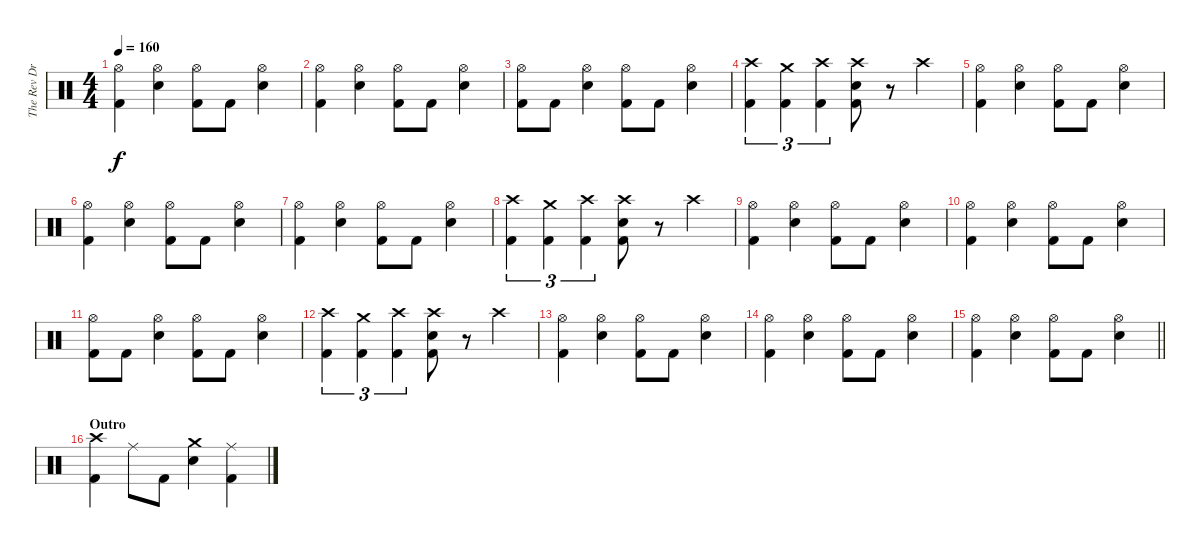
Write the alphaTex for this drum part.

\track ("The Rev Drum" "The Rev Dr") {instrument percussion}
\staff {score}
\articulation defaults
\ts (4 4)
\tempo 160
\clef neutral
\ks c
("Hi-Hat (open)" "Kick (hit) 2").4{dy f} ("Hi-Hat (open)" "Electric Snare (hit)").4 ("Hi-Hat (open)" "Kick (hit) 2").8 "Kick (hit) 2".8 ("Hi-Hat (open)" "Electric Snare (hit)").4 |
("Hi-Hat (open)" "Kick (hit) 2").4 ("Hi-Hat (open)" "Electric Snare (hit)").4 ("Hi-Hat (open)" "Kick (hit) 2").8 "Kick (hit) 2".8 ("Hi-Hat (open)" "Electric Snare (hit)").4 |
("Hi-Hat (open)" "Kick (hit) 2").8 "Kick (hit) 2".8 ("Hi-Hat (open)" "Electric Snare (hit)").4 ("Hi-Hat (open)" "Kick (hit) 2").8 "Kick (hit) 2".8 ("Hi-Hat (open)" "Electric Snare (hit)").4 |
("Crash high (hit)" "Kick (hit) 2").4{tu (3 2)} ("Crash medium (hit)" "Kick (hit) 2").4{tu (3 2)} ("Crash high (hit)" "Kick (hit) 2").4{tu (3 2)} ("Crash high (hit)" "Electric Snare (hit)" "Kick (hit) 2").8 r.8 "Crash high (hit)".4 |
("Hi-Hat (open)" "Kick (hit) 2").4 ("Hi-Hat (open)" "Electric Snare (hit)").4 ("Hi-Hat (open)" "Kick (hit) 2").8 "Kick (hit) 2".8 ("Hi-Hat (open)" "Electric Snare (hit)").4 |
("Hi-Hat (open)" "Kick (hit) 2").4 ("Hi-Hat (open)" "Electric Snare (hit)").4 ("Hi-Hat (open)" "Kick (hit) 2").8 "Kick (hit) 2".8 ("Hi-Hat (open)" "Electric Snare (hit)").4 |
("Hi-Hat (open)" "Kick (hit) 2").4 ("Hi-Hat (open)" "Electric Snare (hit)").4 ("Hi-Hat (open)" "Kick (hit) 2").8 "Kick (hit) 2".8 ("Hi-Hat (open)" "Electric Snare (hit)").4 |
("Crash high (hit)" "Kick (hit) 2").4{tu (3 2)} ("Crash medium (hit)" "Kick (hit) 2").4{tu (3 2)} ("Crash high (hit)" "Kick (hit) 2").4{tu (3 2)} ("Crash high (hit)" "Electric Snare (hit)" "Kick (hit) 2").8 r.8 "Crash high (hit)".4 |
("Hi-Hat (open)" "Kick (hit) 2").4 ("Hi-Hat (open)" "Electric Snare (hit)").4 ("Hi-Hat (open)" "Kick (hit) 2").8 "Kick (hit) 2".8 ("Hi-Hat (open)" "Electric Snare (hit)").4 |
("Hi-Hat (open)" "Kick (hit) 2").4 ("Hi-Hat (open)" "Electric Snare (hit)").4 ("Hi-Hat (open)" "Kick (hit) 2").8 "Kick (hit) 2".8 ("Hi-Hat (open)" "Electric Snare (hit)").4 |
("Hi-Hat (open)" "Kick (hit) 2").8 "Kick (hit) 2".8 ("Hi-Hat (open)" "Electric Snare (hit)").4 ("Hi-Hat (open)" "Kick (hit) 2").8 "Kick (hit) 2".8 ("Hi-Hat (open)" "Electric Snare (hit)").4 |
("Crash high (hit)" "Kick (hit) 2").4{tu (3 2)} ("Crash medium (hit)" "Kick (hit) 2").4{tu (3 2)} ("Crash high (hit)" "Kick (hit) 2").4{tu (3 2)} ("Crash high (hit)" "Electric Snare (hit)" "Kick (hit) 2").8 r.8 "Crash high (hit)".4 |
("Hi-Hat (open)" "Kick (hit) 2").4 ("Hi-Hat (open)" "Electric Snare (hit)").4 ("Hi-Hat (open)" "Kick (hit) 2").8 "Kick (hit) 2".8 ("Hi-Hat (open)" "Electric Snare (hit)").4 |
("Hi-Hat (open)" "Kick (hit) 2").4 ("Hi-Hat (open)" "Electric Snare (hit)").4 ("Hi-Hat (open)" "Kick (hit) 2").8 "Kick (hit) 2".8 ("Hi-Hat (open)" "Electric Snare (hit)").4 |
\barLineRight lightlight
("Hi-Hat (open)" "Kick (hit) 2").4 ("Hi-Hat (open)" "Electric Snare (hit)").4 ("Hi-Hat (open)" "Kick (hit) 2").8 "Kick (hit) 2".8 ("Hi-Hat (open)" "Electric Snare (hit)").4 |
\section ("" "Outro")
("Crash high (hit)" "Kick (hit) 2").4 "Ride (middle)".8 "Kick (hit) 2".8 ("Crash medium (hit)" "Electric Snare (hit)").4 ("Ride (middle)" "Kick (hit) 2").4
